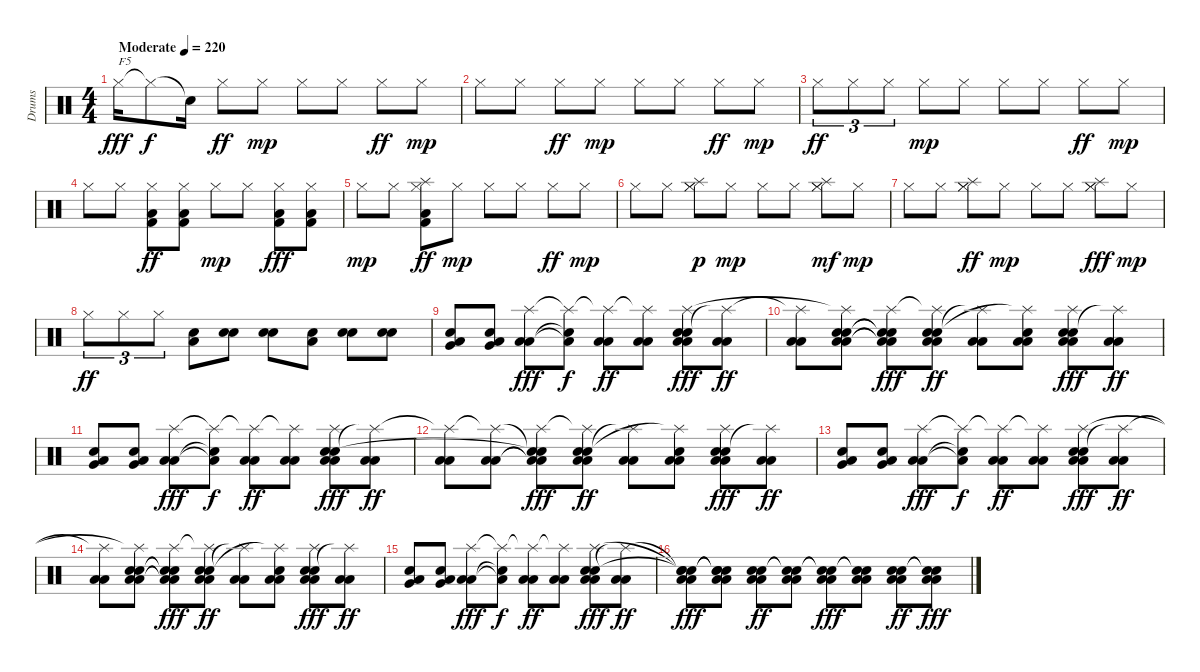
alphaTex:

\track ("Drums" "Drums") {instrument percussion}
\staff {score}
\articulation defaults
\ts (4 4)
\tempo (220 "Moderate")
\clef neutral
\ks c "Hi-Hat (closed)".16{txt "F5" dy fff} "Hi-Hat (closed)"{t}.8{dy f} "Snare (hit)"{t}.16 "Hi-Hat (closed)".8{dy ff} "Hi-Hat (closed)".8{dy mp} "Hi-Hat (closed)".8 "Hi-Hat (closed)".8 "Hi-Hat (closed)".8{dy ff} "Hi-Hat (closed)".8{dy mp}
|
"Hi-Hat (closed)".8 "Hi-Hat (closed)".8 "Hi-Hat (closed)".8{dy ff} "Hi-Hat (closed)".8{dy mp} "Hi-Hat (closed)".8 "Hi-Hat (closed)".8 "Hi-Hat (closed)".8{dy ff} "Hi-Hat (closed)".8{dy mp} |
"Hi-Hat (closed)".8{tu (3 2) dy ff} "Hi-Hat (closed)".8{tu (3 2)} "Hi-Hat (closed)".8{tu (3 2)} "Hi-Hat (closed)".8{dy mp} "Hi-Hat (closed)".8 "Hi-Hat (closed)".8 "Hi-Hat (closed)".8 "Hi-Hat (closed)".8{dy ff} "Hi-Hat (closed)".8{dy mp} |
"Hi-Hat (closed)".8 "Hi-Hat (closed)".8 ("Hi-Hat (closed)" "Kick (hit) 2" "Low Floor Tom (hit)").8{dy ff} ("Hi-Hat (closed)" "Kick (hit) 2" "Low Floor Tom (hit)").8 "Hi-Hat (closed)".8{dy mp} "Hi-Hat (closed)".8 ("Hi-Hat (closed)" "Kick (hit) 2" "Low Floor Tom (hit)").8{dy fff} ("Hi-Hat (closed)" "Kick (hit) 2" "Low Floor Tom (hit)").8 |
"Hi-Hat (closed)".8{dy mp} "Hi-Hat (closed)".8 ("Hi-Hat (closed)" "Kick (hit) 2" "Low Floor Tom (hit)" "Splash (hit)").8{dy ff} "Hi-Hat (closed)".8{dy mp} "Hi-Hat (closed)".8 "Hi-Hat (closed)".8 "Hi-Hat (closed)".8{dy ff} "Hi-Hat (closed)".8{dy mp} |
"Hi-Hat (closed)".8 "Hi-Hat (closed)".8 ("Hi-Hat (closed)" "Hi-Hat (closed)" "Splash (hit)").8{dy p} "Hi-Hat (closed)".8{dy mp} "Hi-Hat (closed)".8 "Hi-Hat (closed)".8 ("Hi-Hat (closed)" "Hi-Hat (closed)" "Splash (hit)").8{dy mf} "Hi-Hat (closed)".8{dy mp} |
"Hi-Hat (closed)".8 "Hi-Hat (closed)".8 ("Hi-Hat (closed)" "Hi-Hat (closed)" "Splash (hit)").8{dy ff} "Hi-Hat (closed)".8{dy mp} "Hi-Hat (closed)".8 "Hi-Hat (closed)".8 ("Hi-Hat (closed)" "Hi-Hat (closed)" "Splash (hit)").8{dy fff} "Hi-Hat (closed)".8{dy mp} |
"Hi-Hat (closed)".8{tu (3 2) dy ff} "Hi-Hat (closed)".8{tu (3 2)} "Hi-Hat (closed)".8{tu (3 2)} ("Electric Snare (hit)" "Low Floor Tom (hit)").8 ("Snare (hit) 2" "Electric Snare (hit)").8 ("Snare (hit) 2" "Electric Snare (hit)").8 ("Electric Snare (hit)" "Low Floor Tom (hit)").8 ("Snare (hit) 2" "Electric Snare (hit)").8 ("Snare (hit) 2" "Electric Snare (hit)").8 |
("Very Low Tom (hit)" "Electric Snare (hit)" "Low Floor Tom (hit)").8 ("Very Low Tom (hit)" "Electric Snare (hit)" "Low Floor Tom (hit)").8 ("Low Floor Tom (hit)" "Low Floor Tom (hit)" "Splash (hit)").8{dy fff} ("Low Floor Tom (hit)"{t} "Snare (hit)"{t} "Splash (hit)"{t}).8{dy f} ("Low Floor Tom (hit)" "Low Floor Tom (hit)" "Splash (hit)"{t}).8{dy ff} ("Low Floor Tom (hit)" "Low Floor Tom (hit)" "Splash (hit)"{t}).8 ("Low Floor Tom (hit)" "Low Floor Tom (hit)" "Electric Snare (hit)" "Snare (hit) 2" "Splash (hit)").8{dy fff} ("Low Floor Tom (hit)" "Low Floor Tom (hit)" "Splash (hit)"{t}).8{dy ff} |
("Low Floor Tom (hit)" "Low Floor Tom (hit)" "Splash (hit)"{t}).8 ("Low Floor Tom (hit)" "Low Floor Tom (hit)" "Electric Snare (hit)" "Snare (hit) 2" "Splash (hit)"{t}).8 ("Low Floor Tom (hit)"{t} "Low Floor Tom (hit)"{t} "Electric Snare (hit)"{t} "Snare (hit) 2"{t} "Splash (hit)").8{dy fff} ("Low Floor Tom (hit)" "Low Floor Tom (hit)" "Electric Snare (hit)" "Snare (hit) 2" "Splash (hit)"{t}).8{dy ff} ("Low Floor Tom (hit)" "Low Floor Tom (hit)" "Splash (hit)"{t}).8 ("Low Floor Tom (hit)" "Low Floor Tom (hit)" "Electric Snare (hit)" "Splash (hit)"{t}).8 ("Low Floor Tom (hit)" "Low Floor Tom (hit)" "Electric Snare (hit)" "Snare (hit) 2" "Splash (hit)").8{dy fff} ("Low Floor Tom (hit)" "Low Floor Tom (hit)" "Splash (hit)"{t}).8{dy ff} |
("Very Low Tom (hit)" "Electric Snare (hit)" "Low Floor Tom (hit)").8 ("Very Low Tom (hit)" "Electric Snare (hit)" "Low Floor Tom (hit)").8 ("Low Floor Tom (hit)" "Low Floor Tom (hit)" "Splash (hit)").8{dy fff} ("Low Floor Tom (hit)"{t} "Snare (hit)"{t} "Splash (hit)"{t}).8{dy f} ("Low Floor Tom (hit)" "Low Floor Tom (hit)" "Splash (hit)"{t}).8{dy ff} ("Low Floor Tom (hit)" "Low Floor Tom (hit)" "Splash (hit)"{t}).8 ("Low Floor Tom (hit)" "Low Floor Tom (hit)" "Electric Snare (hit)" "Snare (hit) 2" "Splash (hit)").8{dy fff} ("Low Floor Tom (hit)" "Low Floor Tom (hit)" "Splash (hit)"{t}).8{dy ff} |
("Low Floor Tom (hit)" "Low Floor Tom (hit)" "Splash (hit)"{t}).8 ("Low Floor Tom (hit)" "Low Floor Tom (hit)" "Splash (hit)"{t}).8 ("Low Floor Tom (hit)"{t} "Low Floor Tom (hit)"{t} "Electric Snare (hit)"{t} "Snare (hit) 2"{t} "Splash (hit)").8{dy fff} ("Low Floor Tom (hit)" "Low Floor Tom (hit)" "Electric Snare (hit)" "Snare (hit) 2" "Splash (hit)"{t}).8{dy ff} ("Low Floor Tom (hit)" "Low Floor Tom (hit)" "Splash (hit)"{t}).8 ("Low Floor Tom (hit)" "Low Floor Tom (hit)" "Electric Snare (hit)" "Splash (hit)"{t}).8 ("Low Floor Tom (hit)" "Low Floor Tom (hit)" "Electric Snare (hit)" "Snare (hit) 2" "Splash (hit)").8{dy fff} ("Low Floor Tom (hit)" "Low Floor Tom (hit)" "Splash (hit)"{t}).8{dy ff} |
("Very Low Tom (hit)" "Electric Snare (hit)" "Low Floor Tom (hit)").8 ("Very Low Tom (hit)" "Electric Snare (hit)" "Low Floor Tom (hit)").8 ("Low Floor Tom (hit)" "Low Floor Tom (hit)" "Splash (hit)").8{dy fff} ("Low Floor Tom (hit)"{t} "Snare (hit)"{t} "Splash (hit)"{t}).8{dy f} ("Low Floor Tom (hit)" "Low Floor Tom (hit)" "Splash (hit)"{t}).8{dy ff} ("Low Floor Tom (hit)" "Low Floor Tom (hit)" "Splash (hit)"{t}).8 ("Low Floor Tom (hit)" "Low Floor Tom (hit)" "Electric Snare (hit)" "Snare (hit) 2" "Splash (hit)").8{dy fff} ("Low Floor Tom (hit)" "Low Floor Tom (hit)" "Splash (hit)"{t}).8{dy ff} |
("Low Floor Tom (hit)" "Low Floor Tom (hit)" "Splash (hit)"{t}).8 ("Low Floor Tom (hit)" "Low Floor Tom (hit)" "Electric Snare (hit)" "Snare (hit) 2" "Splash (hit)"{t}).8 ("Low Floor Tom (hit)"{t} "Low Floor Tom (hit)"{t} "Electric Snare (hit)"{t} "Snare (hit) 2"{t} "Splash (hit)").8{dy fff} ("Low Floor Tom (hit)" "Low Floor Tom (hit)" "Electric Snare (hit)" "Snare (hit) 2" "Splash (hit)"{t}).8{dy ff} ("Low Floor Tom (hit)" "Low Floor Tom (hit)" "Splash (hit)"{t}).8 ("Low Floor Tom (hit)" "Low Floor Tom (hit)" "Electric Snare (hit)" "Splash (hit)"{t}).8 ("Low Floor Tom (hit)" "Low Floor Tom (hit)" "Electric Snare (hit)" "Snare (hit) 2" "Splash (hit)").8{dy fff} ("Low Floor Tom (hit)" "Low Floor Tom (hit)" "Splash (hit)"{t}).8{dy ff} |
("Very Low Tom (hit)" "Electric Snare (hit)" "Low Floor Tom (hit)").8 ("Very Low Tom (hit)" "Electric Snare (hit)" "Low Floor Tom (hit)").8 ("Low Floor Tom (hit)" "Low Floor Tom (hit)" "Splash (hit)").8{dy fff} ("Low Floor Tom (hit)"{t} "Snare (hit)"{t} "Splash (hit)"{t}).8{dy f} ("Low Floor Tom (hit)" "Low Floor Tom (hit)" "Splash (hit)"{t}).8{dy ff} ("Low Floor Tom (hit)" "Low Floor Tom (hit)" "Splash (hit)"{t}).8 ("Low Floor Tom (hit)" "Low Floor Tom (hit)" "Electric Snare (hit)" "Snare (hit) 2" "Splash (hit)").8{dy fff} ("Low Floor Tom (hit)" "Low Floor Tom (hit)" "Splash (hit)"{t}).8{dy ff} |
("Low Floor Tom (hit)" "Low Floor Tom (hit)" "Electric Snare (hit)"{t} "Snare (hit)"{t} "Snare (hit)"{t}).8{dy fff} ("Low Floor Tom (hit)" "Low Floor Tom (hit)" "Electric Snare (hit)"{t} "Snare (hit)"{t} "Snare (hit)"{t}).8 ("Low Floor Tom (hit)" "Low Floor Tom (hit)" "Electric Snare (hit)" "Snare (hit) 2").8{dy ff} ("Low Floor Tom (hit)" "Low Floor Tom (hit)" "Electric Snare (hit)"{t} "Snare (hit)"{t}).8 ("Low Floor Tom (hit)" "Low Floor Tom (hit)" "Electric Snare (hit)"{t} "Snare (hit)"{t}).8{dy fff} ("Low Floor Tom (hit)" "Low Floor Tom (hit)" "Electric Snare (hit)"{t} "Snare (hit)"{t}).8 ("Low Floor Tom (hit)" "Low Floor Tom (hit)" "Electric Snare (hit)" "Snare (hit) 2").8{dy ff} ("Low Floor Tom (hit)" "Low Floor Tom (hit)" "Electric Snare (hit)"{t} "Snare (hit)"{t}).8{dy fff}
